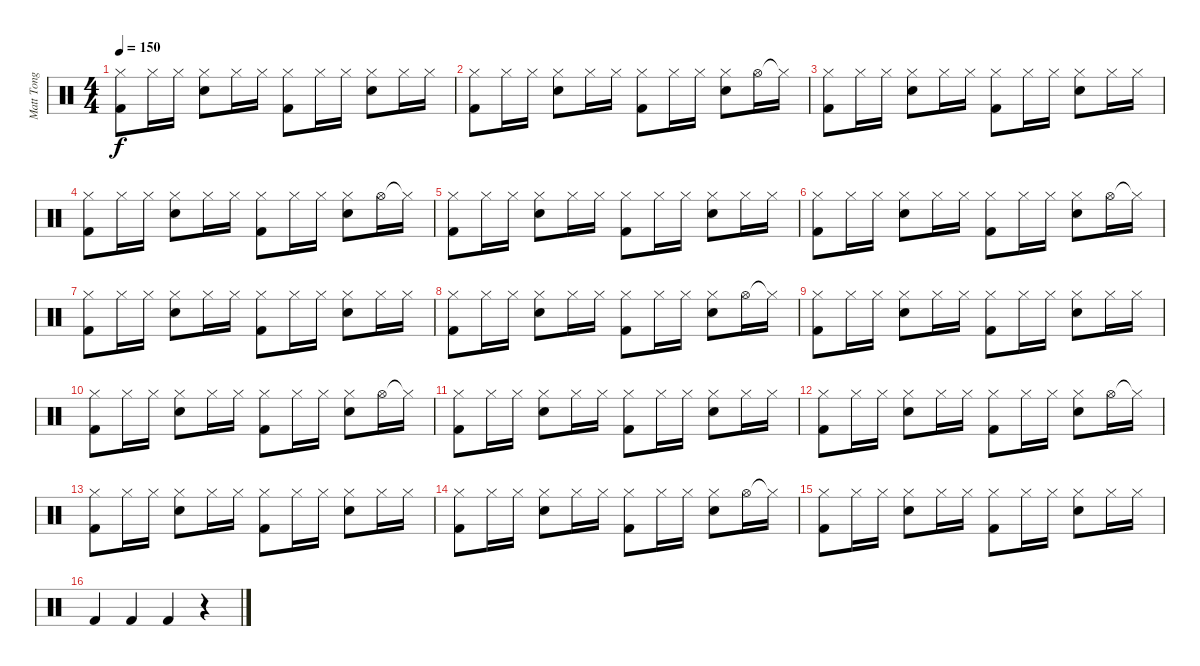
\track ("Matt Tong" "Matt Tong") {instrument percussion}
\staff {score}
\articulation defaults
\ts (4 4)
\tempo 150
\clef neutral
\ks c
("Hi-Hat (closed)" "Kick (hit) 2").8{dy f} "Hi-Hat (closed)".16 "Hi-Hat (closed)".16 ("Hi-Hat (closed)" "Electric Snare (hit)").8 "Hi-Hat (closed)".16 "Hi-Hat (closed)".16 ("Hi-Hat (closed)" "Kick (hit) 2").8 "Hi-Hat (closed)".16 "Hi-Hat (closed)".16 ("Hi-Hat (closed)" "Electric Snare (hit)").8 "Hi-Hat (closed)".16 "Hi-Hat (closed)".16 |
("Hi-Hat (closed)" "Kick (hit) 2").8 "Hi-Hat (closed)".16 "Hi-Hat (closed)".16 ("Hi-Hat (closed)" "Electric Snare (hit)").8 "Hi-Hat (closed)".16 "Hi-Hat (closed)".16 ("Hi-Hat (closed)" "Kick (hit) 2").8 "Hi-Hat (closed)".16 "Hi-Hat (closed)".16 ("Hi-Hat (closed)" "Electric Snare (hit)").8 "Hi-Hat (open)".16 "Hi-Hat (closed)"{t}.16 |
("Hi-Hat (closed)" "Kick (hit) 2").8 "Hi-Hat (closed)".16 "Hi-Hat (closed)".16 ("Hi-Hat (closed)" "Electric Snare (hit)").8 "Hi-Hat (closed)".16 "Hi-Hat (closed)".16 ("Hi-Hat (closed)" "Kick (hit) 2").8 "Hi-Hat (closed)".16 "Hi-Hat (closed)".16 ("Hi-Hat (closed)" "Electric Snare (hit)").8 "Hi-Hat (closed)".16 "Hi-Hat (closed)".16 |
("Hi-Hat (closed)" "Kick (hit) 2").8 "Hi-Hat (closed)".16 "Hi-Hat (closed)".16 ("Hi-Hat (closed)" "Electric Snare (hit)").8 "Hi-Hat (closed)".16 "Hi-Hat (closed)".16 ("Hi-Hat (closed)" "Kick (hit) 2").8 "Hi-Hat (closed)".16 "Hi-Hat (closed)".16 ("Hi-Hat (closed)" "Electric Snare (hit)").8 "Hi-Hat (open)".16 "Hi-Hat (closed)"{t}.16 |
("Hi-Hat (closed)" "Kick (hit) 2").8 "Hi-Hat (closed)".16 "Hi-Hat (closed)".16 ("Hi-Hat (closed)" "Electric Snare (hit)").8 "Hi-Hat (closed)".16 "Hi-Hat (closed)".16 ("Hi-Hat (closed)" "Kick (hit) 2").8 "Hi-Hat (closed)".16 "Hi-Hat (closed)".16 ("Hi-Hat (closed)" "Electric Snare (hit)").8 "Hi-Hat (closed)".16 "Hi-Hat (closed)".16 |
("Hi-Hat (closed)" "Kick (hit) 2").8 "Hi-Hat (closed)".16 "Hi-Hat (closed)".16 ("Hi-Hat (closed)" "Electric Snare (hit)").8 "Hi-Hat (closed)".16 "Hi-Hat (closed)".16 ("Hi-Hat (closed)" "Kick (hit) 2").8 "Hi-Hat (closed)".16 "Hi-Hat (closed)".16 ("Hi-Hat (closed)" "Electric Snare (hit)").8 "Hi-Hat (open)".16 "Hi-Hat (closed)"{t}.16 |
("Hi-Hat (closed)" "Kick (hit) 2").8 "Hi-Hat (closed)".16 "Hi-Hat (closed)".16 ("Hi-Hat (closed)" "Electric Snare (hit)").8 "Hi-Hat (closed)".16 "Hi-Hat (closed)".16 ("Hi-Hat (closed)" "Kick (hit) 2").8 "Hi-Hat (closed)".16 "Hi-Hat (closed)".16 ("Hi-Hat (closed)" "Electric Snare (hit)").8 "Hi-Hat (closed)".16 "Hi-Hat (closed)".16 |
("Hi-Hat (closed)" "Kick (hit) 2").8 "Hi-Hat (closed)".16 "Hi-Hat (closed)".16 ("Hi-Hat (closed)" "Electric Snare (hit)").8 "Hi-Hat (closed)".16 "Hi-Hat (closed)".16 ("Hi-Hat (closed)" "Kick (hit) 2").8 "Hi-Hat (closed)".16 "Hi-Hat (closed)".16 ("Hi-Hat (closed)" "Electric Snare (hit)").8 "Hi-Hat (open)".16 "Hi-Hat (closed)"{t}.16 |
("Hi-Hat (closed)" "Kick (hit) 2").8 "Hi-Hat (closed)".16 "Hi-Hat (closed)".16 ("Hi-Hat (closed)" "Electric Snare (hit)").8 "Hi-Hat (closed)".16 "Hi-Hat (closed)".16 ("Hi-Hat (closed)" "Kick (hit) 2").8 "Hi-Hat (closed)".16 "Hi-Hat (closed)".16 ("Hi-Hat (closed)" "Electric Snare (hit)").8 "Hi-Hat (closed)".16 "Hi-Hat (closed)".16 |
("Hi-Hat (closed)" "Kick (hit) 2").8 "Hi-Hat (closed)".16 "Hi-Hat (closed)".16 ("Hi-Hat (closed)" "Electric Snare (hit)").8 "Hi-Hat (closed)".16 "Hi-Hat (closed)".16 ("Hi-Hat (closed)" "Kick (hit) 2").8 "Hi-Hat (closed)".16 "Hi-Hat (closed)".16 ("Hi-Hat (closed)" "Electric Snare (hit)").8 "Hi-Hat (open)".16 "Hi-Hat (closed)"{t}.16 |
("Hi-Hat (closed)" "Kick (hit) 2").8 "Hi-Hat (closed)".16 "Hi-Hat (closed)".16 ("Hi-Hat (closed)" "Electric Snare (hit)").8 "Hi-Hat (closed)".16 "Hi-Hat (closed)".16 ("Hi-Hat (closed)" "Kick (hit) 2").8 "Hi-Hat (closed)".16 "Hi-Hat (closed)".16 ("Hi-Hat (closed)" "Electric Snare (hit)").8 "Hi-Hat (closed)".16 "Hi-Hat (closed)".16 |
("Hi-Hat (closed)" "Kick (hit) 2").8 "Hi-Hat (closed)".16 "Hi-Hat (closed)".16 ("Hi-Hat (closed)" "Electric Snare (hit)").8 "Hi-Hat (closed)".16 "Hi-Hat (closed)".16 ("Hi-Hat (closed)" "Kick (hit) 2").8 "Hi-Hat (closed)".16 "Hi-Hat (closed)".16 ("Hi-Hat (closed)" "Electric Snare (hit)").8 "Hi-Hat (open)".16 "Hi-Hat (closed)"{t}.16 |
("Hi-Hat (closed)" "Kick (hit) 2").8 "Hi-Hat (closed)".16 "Hi-Hat (closed)".16 ("Hi-Hat (closed)" "Electric Snare (hit)").8 "Hi-Hat (closed)".16 "Hi-Hat (closed)".16 ("Hi-Hat (closed)" "Kick (hit) 2").8 "Hi-Hat (closed)".16 "Hi-Hat (closed)".16 ("Hi-Hat (closed)" "Electric Snare (hit)").8 "Hi-Hat (closed)".16 "Hi-Hat (closed)".16 |
("Hi-Hat (closed)" "Kick (hit) 2").8 "Hi-Hat (closed)".16 "Hi-Hat (closed)".16 ("Hi-Hat (closed)" "Electric Snare (hit)").8 "Hi-Hat (closed)".16 "Hi-Hat (closed)".16 ("Hi-Hat (closed)" "Kick (hit) 2").8 "Hi-Hat (closed)".16 "Hi-Hat (closed)".16 ("Hi-Hat (closed)" "Electric Snare (hit)").8 "Hi-Hat (open)".16 "Hi-Hat (closed)"{t}.16 |
("Hi-Hat (closed)" "Kick (hit) 2").8 "Hi-Hat (closed)".16 "Hi-Hat (closed)".16 ("Hi-Hat (closed)" "Electric Snare (hit)").8 "Hi-Hat (closed)".16 "Hi-Hat (closed)".16 ("Hi-Hat (closed)" "Kick (hit) 2").8 "Hi-Hat (closed)".16 "Hi-Hat (closed)".16 ("Hi-Hat (closed)" "Electric Snare (hit)").8 "Hi-Hat (closed)".16 "Hi-Hat (closed)".16 |
"Kick (hit) 2".4 "Kick (hit) 2".4 "Kick (hit) 2".4 r.4
